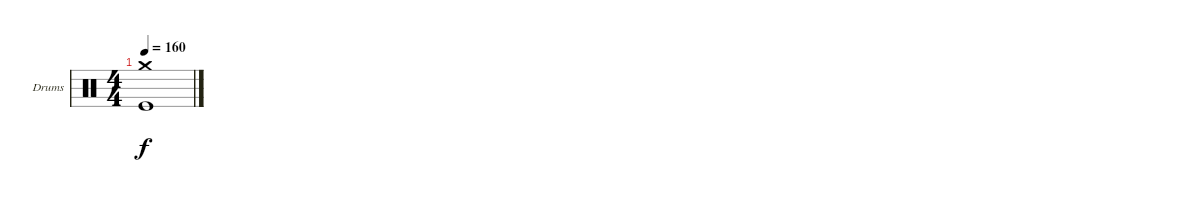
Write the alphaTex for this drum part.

\bracketExtendMode groupsimilarinstruments
\firstSystemTrackNameOrientation horizontal
\otherSystemsTrackNameOrientation horizontal
\track ("Drumkit" "Drums") {instrument percussion}
\staff {score}
\articulation defaults
\ts (4 4)
\tempo 160
\clef neutral
\scale
0.333333
\ks c
("Crash medium (hit)" "Kick (hit)").1{dy f}
